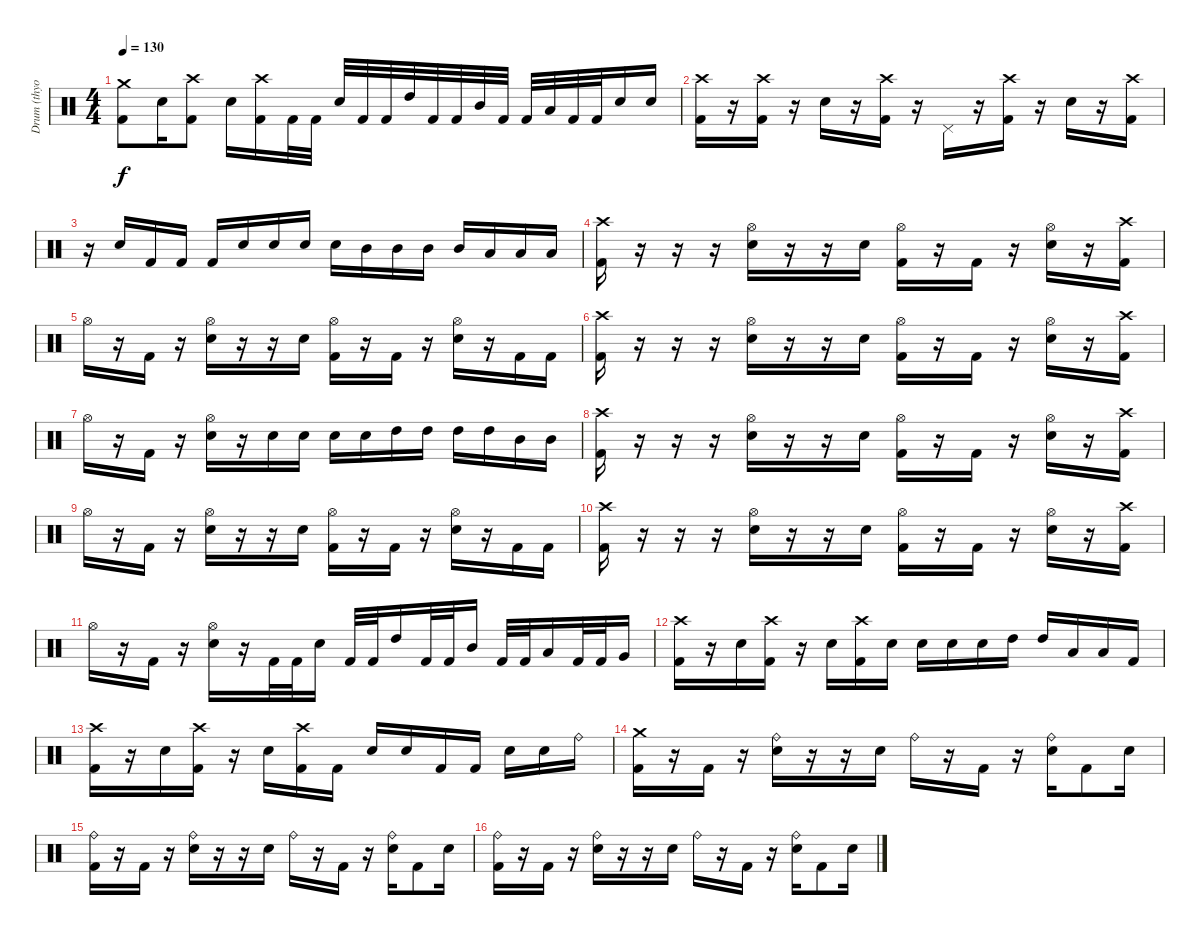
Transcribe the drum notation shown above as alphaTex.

\track ("Drum (thyo)" "Drum (thyo") {instrument percussion}
\staff {score}
\articulation defaults
\ts (4 4)
\tempo 130
\clef neutral
\ks c
("Crash medium (hit)" "Kick (hit) 2").8{dy f} "Electric Snare (hit)".16 ("Crash high (hit)" "Kick (hit) 2").8 "Electric Snare (hit)".16 ("Crash high (hit)" "Kick (hit) 2").16 "Kick (hit) 2".32 "Kick (hit) 2".32 "Electric Snare (hit)".32 "Kick (hit) 2".32 "Kick (hit) 2".32 "High Tom (hit)".32 "Kick (hit) 2".32 "Kick (hit) 2".32 "Mid Tom (hit)".32 "Kick (hit) 2".32 "Kick (hit) 2".32 "Low Tom (hit)".32 "Kick (hit) 2".32 "Kick (hit) 2".32 "Electric Snare (hit)".16 "Electric Snare (hit)".16 |
("Crash high (hit)" "Kick (hit) 2").16 r.16 ("Crash high (hit)" "Kick (hit) 2").16 r.16 "Electric Snare (hit)".16 r.16 ("Crash high (hit)" "Kick (hit) 2").16 r.16 "Pedal Hi-Hat (hit)".16 r.16 ("Crash high (hit)" "Kick (hit) 2").16 r.16 "Electric Snare (hit)".16 r.16 ("Crash high (hit)" "Kick (hit) 2").16 |
r.16 "Electric Snare (hit)".16 "Kick (hit) 2".16 "Kick (hit) 2".16 "Kick (hit) 2".16 "Electric Snare (hit)".16 "Electric Snare (hit)".16 "Electric Snare (hit)".16 "Electric Snare (hit)".16 "Mid Tom (hit)".16 "Mid Tom (hit)".16 "Mid Tom (hit)".16 "Mid Tom (hit)".16 "Low Tom (hit)".16 "Low Tom (hit)".16 "Low Tom (hit)".16 |
("Crash high (hit)" "Kick (hit) 2").16 r.16 r.16 r.16 ("Hi-Hat (open)" "Electric Snare (hit)").16 r.16 r.16 "Electric Snare (hit)".16 ("Hi-Hat (open)" "Kick (hit) 2").16 r.16 "Kick (hit) 2".16 r.16 ("Hi-Hat (open)" "Electric Snare (hit)").16 r.16 ("Crash high (hit)" "Kick (hit) 2").16 |
"Hi-Hat (open)".16 r.16 "Kick (hit) 2".16 r.16 ("Hi-Hat (open)" "Electric Snare (hit)").16 r.16 r.16 "Electric Snare (hit)".16 ("Hi-Hat (open)" "Kick (hit) 2").16 r.16 "Kick (hit) 2".16 r.16 ("Hi-Hat (open)" "Electric Snare (hit)").16 r.16 "Kick (hit) 2".16 "Kick (hit) 2".16 |
("Crash high (hit)" "Kick (hit) 2").16 r.16 r.16 r.16 ("Hi-Hat (open)" "Electric Snare (hit)").16 r.16 r.16 "Electric Snare (hit)".16 ("Hi-Hat (open)" "Kick (hit) 2").16 r.16 "Kick (hit) 2".16 r.16 ("Hi-Hat (open)" "Electric Snare (hit)").16 r.16 ("Crash high (hit)" "Kick (hit) 2").16 |
"Hi-Hat (open)".16 r.16 "Kick (hit) 2".16 r.16 ("Hi-Hat (open)" "Electric Snare (hit)").16 r.16 "Electric Snare (hit)".16 "Electric Snare (hit)".16 "Electric Snare (hit)".16 "Electric Snare (hit)".16 "High Tom (hit)".16 "High Tom (hit)".16 "High Tom (hit)".16 "High Tom (hit)".16 "Mid Tom (hit)".16 "Mid Tom (hit)".16 |
("Crash high (hit)" "Kick (hit) 2").16 r.16 r.16 r.16 ("Hi-Hat (open)" "Electric Snare (hit)").16 r.16 r.16 "Electric Snare (hit)".16 ("Hi-Hat (open)" "Kick (hit) 2").16 r.16 "Kick (hit) 2".16 r.16 ("Hi-Hat (open)" "Electric Snare (hit)").16 r.16 ("Crash high (hit)" "Kick (hit) 2").16 |
"Hi-Hat (open)".16 r.16 "Kick (hit) 2".16 r.16 ("Hi-Hat (open)" "Electric Snare (hit)").16 r.16 r.16 "Electric Snare (hit)".16 ("Hi-Hat (open)" "Kick (hit) 2").16 r.16 "Kick (hit) 2".16 r.16 ("Hi-Hat (open)" "Electric Snare (hit)").16 r.16 "Kick (hit) 2".16 "Kick (hit) 2".16 |
("Crash high (hit)" "Kick (hit) 2").16 r.16 r.16 r.16 ("Hi-Hat (open)" "Electric Snare (hit)").16 r.16 r.16 "Electric Snare (hit)".16 ("Hi-Hat (open)" "Kick (hit) 2").16 r.16 "Kick (hit) 2".16 r.16 ("Hi-Hat (open)" "Electric Snare (hit)").16 r.16 ("Crash high (hit)" "Kick (hit) 2").16 |
"Hi-Hat (open)".16 r.16 "Kick (hit) 2".16 r.16 ("Hi-Hat (open)" "Electric Snare (hit)").16 r.16 "Kick (hit) 2".32 "Kick (hit) 2".32 "Electric Snare (hit)".16 "Kick (hit) 2".32 "Kick (hit) 2".32 "High Tom (hit)".16 "Kick (hit) 2".32 "Kick (hit) 2".32 "Mid Tom (hit)".16 "Kick (hit) 2".32 "Kick (hit) 2".32 "Low Tom (hit)".16 "Kick (hit) 2".32 "Kick (hit) 2".32 "Very Low Tom (hit)".16 |
("Crash high (hit)" "Kick (hit) 2").16 r.16 "Electric Snare (hit)".16 ("Crash high (hit)" "Kick (hit) 2").16 r.16 "Electric Snare (hit)".16 ("Crash high (hit)" "Kick (hit) 2").16 "Electric Snare (hit)".16 "Electric Snare (hit)".16 "Electric Snare (hit)".16 "Electric Snare (hit)".16 "High Tom (hit)".16 "High Tom (hit)".16 "Low Tom (hit)".16 "Low Tom (hit)".16 "Kick (hit) 2".16 |
("Crash high (hit)" "Kick (hit) 2").16 r.16 "Electric Snare (hit)".16 ("Crash high (hit)" "Kick (hit) 2").16 r.16 "Electric Snare (hit)".16 ("Crash high (hit)" "Kick (hit) 2").16 "Kick (hit) 2".16 "Electric Snare (hit)".16 "Electric Snare (hit)".16 "Kick (hit) 2".16 "Kick (hit) 2".16 "Electric Snare (hit)".16 "Electric Snare (hit)".16 "Ride (bell)".16 |
("Crash medium (hit)" "Kick (hit) 2").16 r.16 "Kick (hit) 2".16 r.16 ("Electric Snare (hit)" "Ride (bell)").16 r.16 r.16 "Electric Snare (hit)".16 "Ride (bell)".16 r.16 "Kick (hit) 2".16 r.16 ("Electric Snare (hit)" "Ride (bell)").16 "Kick (hit) 2".8 "Electric Snare (hit)".16 |
("Ride (bell)" "Kick (hit) 2").16 r.16 "Kick (hit) 2".16 r.16 ("Electric Snare (hit)" "Ride (bell)").16 r.16 r.16 "Electric Snare (hit)".16 "Ride (bell)".16 r.16 "Kick (hit) 2".16 r.16 ("Electric Snare (hit)" "Ride (bell)").16 "Kick (hit) 2".8 "Electric Snare (hit)".16 |
("Ride (bell)" "Kick (hit) 2").16 r.16 "Kick (hit) 2".16 r.16 ("Electric Snare (hit)" "Ride (bell)").16 r.16 r.16 "Electric Snare (hit)".16 "Ride (bell)".16 r.16 "Kick (hit) 2".16 r.16 ("Electric Snare (hit)" "Ride (bell)").16 "Kick (hit) 2".8 "Electric Snare (hit)".16
